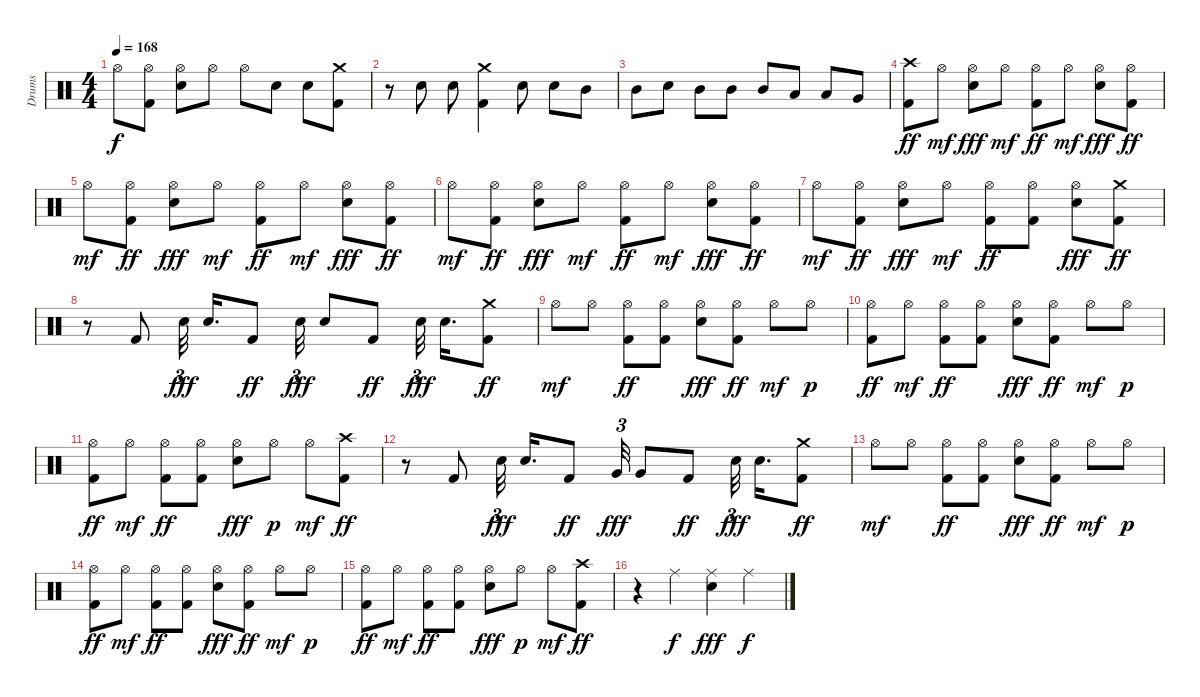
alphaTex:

\track ("Drums" "Drums") {instrument percussion}
\staff {score}
\articulation defaults
\ts (4 4)
\tempo 168
\clef neutral
\ks c "Hi-Hat (open)".8{dy f}
("Hi-Hat (open)" "Kick (hit) 2").8 ("Snare (hit) 2" "Hi-Hat (open)").8 "Hi-Hat (open)".8 "Hi-Hat (open)".8 "Snare (hit) 2".8 "Snare (hit) 2".8 ("Kick (hit) 2" "Crash medium (hit)").8 |
r.8 "Snare (hit) 2".8 "Snare (hit) 2".8 ("Crash medium (hit)" "Kick (hit) 2").4 "Snare (hit) 2".8 "Snare (hit) 2".8 "Mid Tom (hit)".8 |
"Mid Tom (hit)".8 "Snare (hit) 2".8 "Mid Tom (hit)".8 "Mid Tom (hit)".8 "Mid Tom (hit)".8 "Low Tom (hit)".8 "Low Tom (hit)".8 "Very Low Tom (hit)".8 |
("Kick (hit) 2" "Crash high (hit)").8{dy ff} "Hi-Hat (open)".8{dy mf} ("Hi-Hat (open)" "Snare (hit) 2").8{dy fff} "Hi-Hat (open)".8{dy mf} ("Hi-Hat (open)" "Kick (hit) 2").8{dy ff} "Hi-Hat (open)".8{dy mf} ("Hi-Hat (open)" "Snare (hit) 2").8{dy fff} ("Hi-Hat (open)" "Kick (hit) 2").8{dy ff} |
"Hi-Hat (open)".8{dy mf} ("Hi-Hat (open)" "Kick (hit) 2").8{dy ff} ("Hi-Hat (open)" "Snare (hit) 2").8{dy fff} "Hi-Hat (open)".8{dy mf} ("Hi-Hat (open)" "Kick (hit) 2").8{dy ff} "Hi-Hat (open)".8{dy mf} ("Hi-Hat (open)" "Snare (hit) 2").8{dy fff} ("Hi-Hat (open)" "Kick (hit) 2").8{dy ff} |
"Hi-Hat (open)".8{dy mf} ("Hi-Hat (open)" "Kick (hit) 2").8{dy ff} ("Hi-Hat (open)" "Snare (hit) 2").8{dy fff} "Hi-Hat (open)".8{dy mf} ("Hi-Hat (open)" "Kick (hit) 2").8{dy ff} "Hi-Hat (open)".8{dy mf} ("Hi-Hat (open)" "Snare (hit) 2").8{dy fff} ("Hi-Hat (open)" "Kick (hit) 2").8{dy ff} |
"Hi-Hat (open)".8{dy mf} ("Hi-Hat (open)" "Kick (hit) 2").8{dy ff} ("Hi-Hat (open)" "Snare (hit) 2").8{dy fff} "Hi-Hat (open)".8{dy mf} ("Hi-Hat (open)" "Kick (hit) 2").8{dy ff} ("Hi-Hat (open)" "Kick (hit) 2").8 ("Hi-Hat (open)" "Snare (hit) 2").8{dy fff} ("Kick (hit) 2" "Crash medium (hit)").8{dy ff} |
r.8 "Kick (hit) 2".8 "Snare (hit) 2".32{tu (3 2) dy fff beam splitsecondary} "Snare (hit) 2".16{d} "Kick (hit) 2".8{dy ff} "Snare (hit) 2".32{tu (3 2) dy fff} "Snare (hit) 2".8 "Kick (hit) 2".8{dy ff} "Snare (hit) 2".32{tu (3 2) dy fff beam splitsecondary} "Snare (hit) 2".16{d} ("Kick (hit) 2" "Crash medium (hit)").8{dy ff} |
"Hi-Hat (open)".8{dy mf} "Hi-Hat (open)".8 ("Hi-Hat (open)" "Kick (hit) 2").8{dy ff} ("Hi-Hat (open)" "Kick (hit) 2").8 ("Hi-Hat (open)" "Snare (hit) 2").8{dy fff} ("Hi-Hat (open)" "Kick (hit) 2").8{dy ff} "Hi-Hat (open)".8{dy mf} "Hi-Hat (open)".8{dy p} |
("Hi-Hat (open)" "Kick (hit) 2").8{dy ff} "Hi-Hat (open)".8{dy mf} ("Hi-Hat (open)" "Kick (hit) 2").8{dy ff} ("Hi-Hat (open)" "Kick (hit) 2").8 ("Hi-Hat (open)" "Snare (hit) 2").8{dy fff} ("Hi-Hat (open)" "Kick (hit) 2").8{dy ff} "Hi-Hat (open)".8{dy mf} "Hi-Hat (open)".8{dy p} |
("Hi-Hat (open)" "Kick (hit) 2").8{dy ff} "Hi-Hat (open)".8{dy mf} ("Hi-Hat (open)" "Kick (hit) 2").8{dy ff} ("Hi-Hat (open)" "Kick (hit) 2").8 ("Hi-Hat (open)" "Snare (hit) 2").8{dy fff} "Hi-Hat (open)".8{dy p} "Hi-Hat (open)".8{dy mf} ("Kick (hit) 2" "Crash high (hit)").8{dy ff} |
r.8 "Kick (hit) 2".8 "Snare (hit) 2".32{tu (3 2) dy fff beam splitsecondary} "Snare (hit) 2".16{d} "Kick (hit) 2".8{dy ff} "Very Low Tom (hit)".32{tu (3 2) dy fff} "Very Low Tom (hit)".8 "Kick (hit) 2".8{dy ff} "Snare (hit) 2".32{tu (3 2) dy fff beam splitsecondary} "Snare (hit) 2".16{d} ("Kick (hit) 2" "Crash medium (hit)").8{dy ff} |
"Hi-Hat (open)".8{dy mf} "Hi-Hat (open)".8 ("Hi-Hat (open)" "Kick (hit) 2").8{dy ff} ("Hi-Hat (open)" "Kick (hit) 2").8 ("Hi-Hat (open)" "Snare (hit) 2").8{dy fff} ("Hi-Hat (open)" "Kick (hit) 2").8{dy ff} "Hi-Hat (open)".8{dy mf} "Hi-Hat (open)".8{dy p} |
("Hi-Hat (open)" "Kick (hit) 2").8{dy ff} "Hi-Hat (open)".8{dy mf} ("Hi-Hat (open)" "Kick (hit) 2").8{dy ff} ("Hi-Hat (open)" "Kick (hit) 2").8 ("Hi-Hat (open)" "Snare (hit) 2").8{dy fff} ("Hi-Hat (open)" "Kick (hit) 2").8{dy ff} "Hi-Hat (open)".8{dy mf} "Hi-Hat (open)".8{dy p} |
("Hi-Hat (open)" "Kick (hit) 2").8{dy ff} "Hi-Hat (open)".8{dy mf} ("Hi-Hat (open)" "Kick (hit) 2").8{dy ff} ("Hi-Hat (open)" "Kick (hit) 2").8 ("Hi-Hat (open)" "Snare (hit) 2").8{dy fff} "Hi-Hat (open)".8{dy p} "Hi-Hat (open)".8{dy mf} ("Kick (hit) 2" "Crash high (hit)").8{dy ff} |
r.4 "Ride (middle)".4{dy f} ("Snare (hit) 2" "Ride (middle)").4{dy fff} "Ride (middle)".4{dy f}
